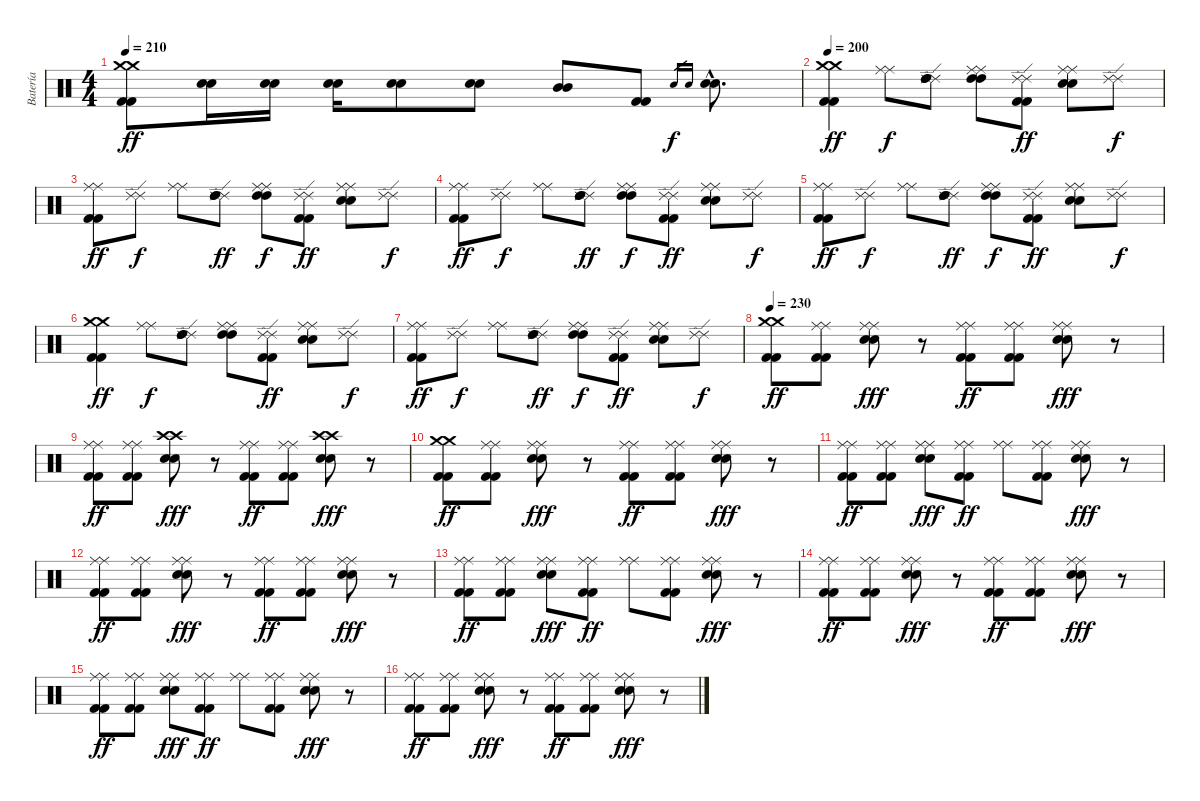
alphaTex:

\track ("Batería" "Batería") {instrument percussion}
\staff {score}
\articulation defaults
\ts (4 4)
\tempo 210
\clef neutral
\ks c
("Crash medium (hit)" "Crash medium (hit)" "Kick (hit) 2" "Kick (hit) 2").8{dy ff} ("Electric Snare (hit)" "Electric Snare (hit)").16 ("Electric Snare (hit)" "Electric Snare (hit)").16 ("Electric Snare (hit)" "Electric Snare (hit)").16 ("Electric Snare (hit)" "Electric Snare (hit)").8 ("Electric Snare (hit)" "Electric Snare (hit)").8 ("Mid Tom (hit)" "Mid Tom (hit)").8 ("Kick (hit) 2" "Kick (hit) 2").8 "Electric Snare (hit)".16{gr dy f} "Electric Snare (hit)".16{gr} ("Electric Snare (hit)"{hac} "Electric Snare (hit)"{hac}).8{d} |
\tempo 200
("Crash medium (hit)" "Crash medium (hit)" "Kick (hit) 2" "Kick (hit) 2").4{dy ff} ("Ride (middle)" "Ride (middle)").8{dy f} ("Ride (edge) 2" "Ride (edge) 2" "High Tom (hit)" "High Tom (hit)").8 ("Ride (middle)" "Ride (middle)" "High Tom (hit)" "High Tom (hit)").8 ("Ride (edge) 2" "Ride (edge) 2" "Kick (hit) 2" "Kick (hit) 2").8{dy ff} ("Ride (middle)" "Ride (middle)" "Electric Snare (hit)" "Electric Snare (hit)").8 ("Ride (edge) 2" "Ride (edge) 2").8{dy f} |
("Ride (middle)" "Ride (middle)" "Kick (hit) 2" "Kick (hit) 2").8{dy ff} ("Ride (edge) 2" "Ride (edge) 2").8{dy f} ("Ride (middle)" "Ride (middle)").8 ("Ride (edge) 2" "Ride (edge) 2" "High Tom (hit)" "High Tom (hit)").8{dy ff} ("Ride (middle)" "Ride (middle)" "High Tom (hit)" "High Tom (hit)").8{dy f} ("Ride (edge) 2" "Ride (edge) 2" "Kick (hit) 2" "Kick (hit) 2").8{dy ff} ("Ride (middle)" "Ride (middle)" "Electric Snare (hit)" "Electric Snare (hit)").8 ("Ride (edge) 2" "Ride (edge) 2").8{dy f} |
("Ride (middle)" "Ride (middle)" "Kick (hit) 2" "Kick (hit) 2").8{dy ff} ("Ride (edge) 2" "Ride (edge) 2").8{dy f} ("Ride (middle)" "Ride (middle)").8 ("Ride (edge) 2" "Ride (edge) 2" "High Tom (hit)" "High Tom (hit)").8{dy ff} ("Ride (middle)" "Ride (middle)" "High Tom (hit)" "High Tom (hit)").8{dy f} ("Ride (edge) 2" "Ride (edge) 2" "Kick (hit) 2" "Kick (hit) 2").8{dy ff} ("Ride (middle)" "Ride (middle)" "Electric Snare (hit)" "Electric Snare (hit)").8 ("Ride (edge) 2" "Ride (edge) 2").8{dy f} |
("Ride (middle)" "Ride (middle)" "Kick (hit) 2" "Kick (hit) 2").8{dy ff} ("Ride (edge) 2" "Ride (edge) 2").8{dy f} ("Ride (middle)" "Ride (middle)").8 ("Ride (edge) 2" "Ride (edge) 2" "High Tom (hit)" "High Tom (hit)").8{dy ff} ("Ride (middle)" "Ride (middle)" "High Tom (hit)" "High Tom (hit)").8{dy f} ("Ride (edge) 2" "Ride (edge) 2" "Kick (hit) 2" "Kick (hit) 2").8{dy ff} ("Ride (middle)" "Ride (middle)" "Electric Snare (hit)" "Electric Snare (hit)").8 ("Ride (edge) 2" "Ride (edge) 2").8{dy f} |
("Crash medium (hit)" "Crash medium (hit)" "Kick (hit) 2" "Kick (hit) 2").4{dy ff} ("Ride (middle)" "Ride (middle)").8{dy f} ("Ride (edge) 2" "Ride (edge) 2" "High Tom (hit)" "High Tom (hit)").8 ("Ride (middle)" "Ride (middle)" "High Tom (hit)" "High Tom (hit)").8 ("Ride (edge) 2" "Ride (edge) 2" "Kick (hit) 2" "Kick (hit) 2").8{dy ff} ("Ride (middle)" "Ride (middle)" "Electric Snare (hit)" "Electric Snare (hit)").8 ("Ride (edge) 2" "Ride (edge) 2").8{dy f} |
("Ride (middle)" "Ride (middle)" "Kick (hit) 2" "Kick (hit) 2").8{dy ff} ("Ride (edge) 2" "Ride (edge) 2").8{dy f} ("Ride (middle)" "Ride (middle)").8 ("Ride (edge) 2" "Ride (edge) 2" "High Tom (hit)" "High Tom (hit)").8{dy ff} ("Ride (middle)" "Ride (middle)" "High Tom (hit)" "High Tom (hit)").8{dy f} ("Ride (edge) 2" "Ride (edge) 2" "Kick (hit) 2" "Kick (hit) 2").8{dy ff} ("Ride (middle)" "Ride (middle)" "Electric Snare (hit)" "Electric Snare (hit)").8 ("Ride (edge) 2" "Ride (edge) 2").8{dy f} |
\tempo 230
("Crash medium (hit)" "Crash medium (hit)" "Kick (hit) 2" "Kick (hit) 2").8{dy ff} ("Ride (middle)" "Ride (middle)" "Kick (hit) 2" "Kick (hit) 2").8 ("Ride (middle)" "Ride (middle)" "Electric Snare (hit)" "Electric Snare (hit)").8{dy fff} r.8 ("Ride (middle)" "Ride (middle)" "Kick (hit) 2" "Kick (hit) 2").8{dy ff} ("Ride (middle)" "Ride (middle)" "Kick (hit) 2" "Kick (hit) 2").8 ("Ride (middle)" "Ride (middle)" "Electric Snare (hit)" "Electric Snare (hit)").8{dy fff} r.8 |
("Ride (middle)" "Ride (middle)" "Kick (hit) 2" "Kick (hit) 2").8{dy ff} ("Ride (middle)" "Ride (middle)" "Kick (hit) 2" "Kick (hit) 2").8 ("Crash high (hit)" "Crash high (hit)" "Electric Snare (hit)" "Electric Snare (hit)").8{dy fff} r.8 ("Ride (middle)" "Ride (middle)" "Kick (hit) 2" "Kick (hit) 2").8{dy ff} ("Ride (middle)" "Ride (middle)" "Kick (hit) 2" "Kick (hit) 2").8 ("Crash high (hit)" "Crash high (hit)" "Electric Snare (hit)" "Electric Snare (hit)").8{dy fff} r.8 |
("Crash medium (hit)" "Crash medium (hit)" "Kick (hit) 2" "Kick (hit) 2").8{dy ff} ("Ride (middle)" "Ride (middle)" "Kick (hit) 2" "Kick (hit) 2").8 ("Ride (middle)" "Ride (middle)" "Electric Snare (hit)" "Electric Snare (hit)").8{dy fff} r.8 ("Ride (middle)" "Ride (middle)" "Kick (hit) 2" "Kick (hit) 2").8{dy ff} ("Ride (middle)" "Ride (middle)" "Kick (hit) 2" "Kick (hit) 2").8 ("Ride (middle)" "Ride (middle)" "Electric Snare (hit)" "Electric Snare (hit)").8{dy fff} r.8 |
("Ride (middle)" "Ride (middle)" "Kick (hit) 2" "Kick (hit) 2").8{dy ff} ("Ride (middle)" "Ride (middle)" "Kick (hit) 2" "Kick (hit) 2").8 ("Ride (middle)" "Ride (middle)" "Electric Snare (hit)" "Electric Snare (hit)").8{dy fff} ("Ride (middle)" "Ride (middle)" "Kick (hit) 2" "Kick (hit) 2").8{dy ff} ("Ride (middle)" "Ride (middle)").8 ("Ride (middle)" "Ride (middle)" "Kick (hit) 2" "Kick (hit) 2").8 ("Ride (middle)" "Ride (middle)" "Electric Snare (hit)" "Electric Snare (hit)").8{dy fff} r.8 |
("Ride (middle)" "Ride (middle)" "Kick (hit) 2" "Kick (hit) 2").8{dy ff} ("Ride (middle)" "Ride (middle)" "Kick (hit) 2" "Kick (hit) 2").8 ("Ride (middle)" "Ride (middle)" "Electric Snare (hit)" "Electric Snare (hit)").8{dy fff} r.8 ("Ride (middle)" "Ride (middle)" "Kick (hit) 2" "Kick (hit) 2").8{dy ff} ("Ride (middle)" "Ride (middle)" "Kick (hit) 2" "Kick (hit) 2").8 ("Ride (middle)" "Ride (middle)" "Electric Snare (hit)" "Electric Snare (hit)").8{dy fff} r.8 |
("Ride (middle)" "Ride (middle)" "Kick (hit) 2" "Kick (hit) 2").8{dy ff} ("Ride (middle)" "Ride (middle)" "Kick (hit) 2" "Kick (hit) 2").8 ("Ride (middle)" "Ride (middle)" "Electric Snare (hit)" "Electric Snare (hit)").8{dy fff} ("Ride (middle)" "Ride (middle)" "Kick (hit) 2" "Kick (hit) 2").8{dy ff} ("Ride (middle)" "Ride (middle)").8 ("Ride (middle)" "Ride (middle)" "Kick (hit) 2" "Kick (hit) 2").8 ("Ride (middle)" "Ride (middle)" "Electric Snare (hit)" "Electric Snare (hit)").8{dy fff} r.8 |
("Ride (middle)" "Ride (middle)" "Kick (hit) 2" "Kick (hit) 2").8{dy ff} ("Ride (middle)" "Ride (middle)" "Kick (hit) 2" "Kick (hit) 2").8 ("Ride (middle)" "Ride (middle)" "Electric Snare (hit)" "Electric Snare (hit)").8{dy fff} r.8 ("Ride (middle)" "Ride (middle)" "Kick (hit) 2" "Kick (hit) 2").8{dy ff} ("Ride (middle)" "Ride (middle)" "Kick (hit) 2" "Kick (hit) 2").8 ("Ride (middle)" "Ride (middle)" "Electric Snare (hit)" "Electric Snare (hit)").8{dy fff} r.8 |
("Ride (middle)" "Ride (middle)" "Kick (hit) 2" "Kick (hit) 2").8{dy ff} ("Ride (middle)" "Ride (middle)" "Kick (hit) 2" "Kick (hit) 2").8 ("Ride (middle)" "Ride (middle)" "Electric Snare (hit)" "Electric Snare (hit)").8{dy fff} ("Ride (middle)" "Ride (middle)" "Kick (hit) 2" "Kick (hit) 2").8{dy ff} ("Ride (middle)" "Ride (middle)").8 ("Ride (middle)" "Ride (middle)" "Kick (hit) 2" "Kick (hit) 2").8 ("Ride (middle)" "Ride (middle)" "Electric Snare (hit)" "Electric Snare (hit)").8{dy fff} r.8 |
("Ride (middle)" "Ride (middle)" "Kick (hit) 2" "Kick (hit) 2").8{dy ff} ("Ride (middle)" "Ride (middle)" "Kick (hit) 2" "Kick (hit) 2").8 ("Ride (middle)" "Ride (middle)" "Electric Snare (hit)" "Electric Snare (hit)").8{dy fff} r.8 ("Ride (middle)" "Ride (middle)" "Kick (hit) 2" "Kick (hit) 2").8{dy ff} ("Ride (middle)" "Ride (middle)" "Kick (hit) 2" "Kick (hit) 2").8 ("Ride (middle)" "Ride (middle)" "Electric Snare (hit)" "Electric Snare (hit)").8{dy fff} r.8
